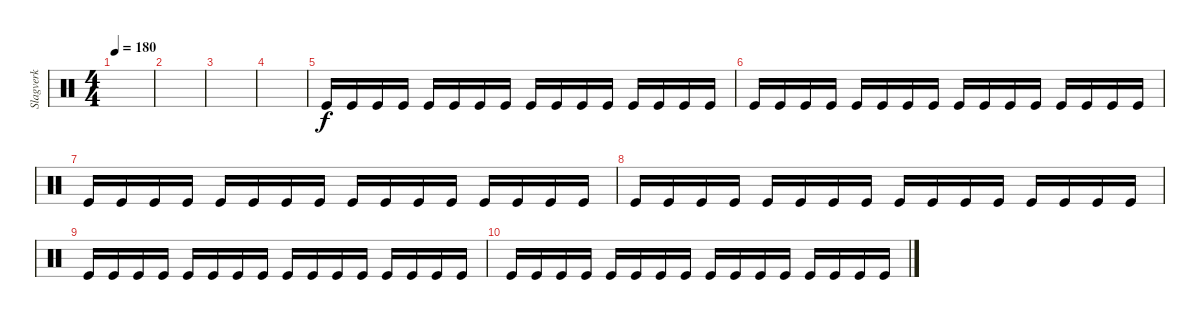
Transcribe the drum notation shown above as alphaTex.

\track ("Slagverk" "Slagverk") {instrument percussion}
\staff {score}
\articulation defaults
\ts (4 4)
\tempo 180
\clef neutral
\ks c
|
|
|
|
"Kick (hit)".16 "Kick (hit)".16 "Kick (hit)".16 "Kick (hit)".16 "Kick (hit)".16 "Kick (hit)".16 "Kick (hit)".16 "Kick (hit)".16 "Kick (hit)".16 "Kick (hit)".16 "Kick (hit)".16 "Kick (hit)".16 "Kick (hit)".16 "Kick (hit)".16 "Kick (hit)".16 "Kick (hit)".16 |
"Kick (hit)".16 "Kick (hit)".16 "Kick (hit)".16 "Kick (hit)".16 "Kick (hit)".16 "Kick (hit)".16 "Kick (hit)".16 "Kick (hit)".16 "Kick (hit)".16 "Kick (hit)".16 "Kick (hit)".16 "Kick (hit)".16 "Kick (hit)".16 "Kick (hit)".16 "Kick (hit)".16 "Kick (hit)".16 |
"Kick (hit)".16 "Kick (hit)".16 "Kick (hit)".16 "Kick (hit)".16 "Kick (hit)".16 "Kick (hit)".16 "Kick (hit)".16 "Kick (hit)".16 "Kick (hit)".16 "Kick (hit)".16 "Kick (hit)".16 "Kick (hit)".16 "Kick (hit)".16 "Kick (hit)".16 "Kick (hit)".16 "Kick (hit)".16 |
"Kick (hit)".16 "Kick (hit)".16 "Kick (hit)".16 "Kick (hit)".16 "Kick (hit)".16 "Kick (hit)".16 "Kick (hit)".16 "Kick (hit)".16 "Kick (hit)".16 "Kick (hit)".16 "Kick (hit)".16 "Kick (hit)".16 "Kick (hit)".16 "Kick (hit)".16 "Kick (hit)".16 "Kick (hit)".16 |
"Kick (hit)".16 "Kick (hit)".16 "Kick (hit)".16 "Kick (hit)".16 "Kick (hit)".16 "Kick (hit)".16 "Kick (hit)".16 "Kick (hit)".16 "Kick (hit)".16 "Kick (hit)".16 "Kick (hit)".16 "Kick (hit)".16 "Kick (hit)".16 "Kick (hit)".16 "Kick (hit)".16 "Kick (hit)".16 |
"Kick (hit)".16 "Kick (hit)".16 "Kick (hit)".16 "Kick (hit)".16 "Kick (hit)".16 "Kick (hit)".16 "Kick (hit)".16 "Kick (hit)".16 "Kick (hit)".16 "Kick (hit)".16 "Kick (hit)".16 "Kick (hit)".16 "Kick (hit)".16 "Kick (hit)".16 "Kick (hit)".16 "Kick (hit)".16
